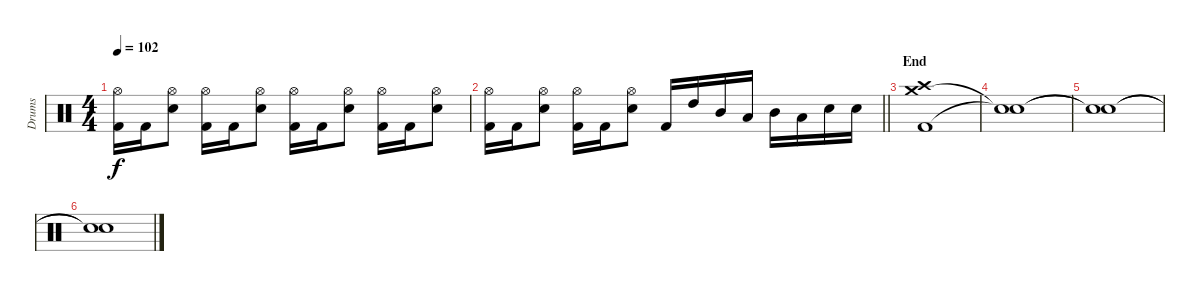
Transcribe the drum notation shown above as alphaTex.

\track ("Drums" "Drums") {instrument percussion}
\staff {score}
\articulation defaults
\ts (4 4)
\tempo 102
\clef neutral
\ks c
("Kick (hit) 2" "Hi-Hat (open)").16{dy f} "Kick (hit) 2".16 ("Snare (hit) 2" "Hi-Hat (open)").8 ("Kick (hit) 2" "Hi-Hat (open)").16 "Kick (hit) 2".16 ("Snare (hit) 2" "Hi-Hat (open)").8 ("Kick (hit) 2" "Hi-Hat (open)").16 "Kick (hit) 2".16 ("Snare (hit) 2" "Hi-Hat (open)").8 ("Kick (hit) 2" "Hi-Hat (open)").16 "Kick (hit) 2".16 ("Snare (hit) 2" "Hi-Hat (open)").8 |
\barLineRight lightlight
("Kick (hit) 2" "Hi-Hat (open)").16 "Kick (hit) 2".16 ("Snare (hit) 2" "Hi-Hat (open)").8 ("Kick (hit) 2" "Hi-Hat (open)").16 "Kick (hit) 2".16 ("Snare (hit) 2" "Hi-Hat (open)").8 "Kick (hit) 2".16 "High Tom (hit)".16 "Mid Tom (hit)".16 "Low Tom (hit)".16 "Mid Tom (hit)".16 "Low Tom (hit)".16 "Snare (hit) 2".16 "Snare (hit) 2".16 |
\section ("" "End")
("Kick (hit) 2" "Crash medium (hit)" "Crash high (hit)").1 |
("Snare (hit)"{t} "Snare (hit)"{t}).1 |
("Snare (hit)"{t} "Snare (hit)"{t}).1 |
("Snare (hit)"{t} "Snare (hit)"{t}).1
